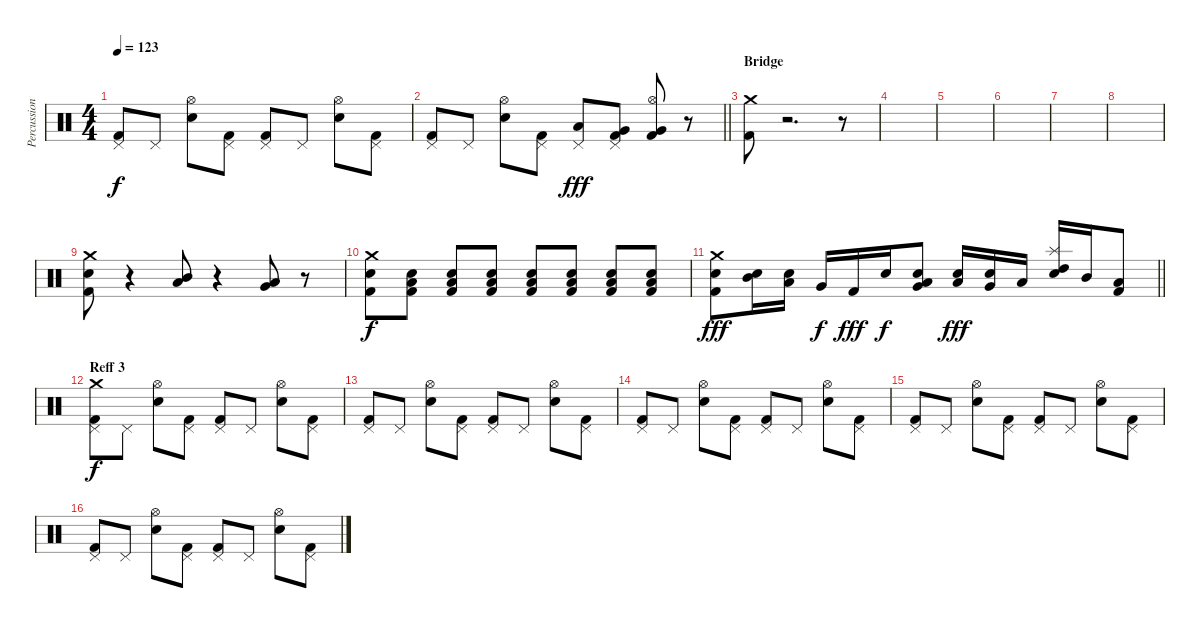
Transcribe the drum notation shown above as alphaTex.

\track ("Percussion 1" "Percussion") {instrument percussion}
\staff {score}
\articulation defaults
\ts (4 4)
\tempo 123
\clef neutral
\ks c
("Pedal Hi-Hat (hit)" "Kick (hit) 2").8{dy f} "Pedal Hi-Hat (hit)".8 ("Hi-Hat (open)" "Electric Snare (hit)").8 ("Pedal Hi-Hat (hit)" "Kick (hit) 2").8 ("Pedal Hi-Hat (hit)" "Kick (hit) 2").8 "Pedal Hi-Hat (hit)".8 ("Hi-Hat (open)" "Electric Snare (hit)").8 ("Pedal Hi-Hat (hit)" "Kick (hit) 2").8 |
\barLineRight lightlight
("Pedal Hi-Hat (hit)" "Kick (hit) 2").8 "Pedal Hi-Hat (hit)".8 ("Hi-Hat (open)" "Electric Snare (hit)").8 ("Pedal Hi-Hat (hit)" "Kick (hit) 2").8 ("Pedal Hi-Hat (hit)" "Low Tom (hit)").8{dy fff} ("Pedal Hi-Hat (hit)" "Very Low Tom (hit)" "Kick (hit) 2").8 ("Hi-Hat (open)" "Very Low Tom (hit)" "Kick (hit) 2").8 r.8 |
\section ("" "Bridge")
("Crash medium (hit)" "Kick (hit) 2").8 r.2{d volume 13} r.8 |
|
|
|
|
|
("Crash medium (hit)" "Electric Snare (hit)" "Kick (hit) 2").8 r.4 ("Mid Tom (hit)" "Low Tom (hit)").8 r.4 ("Low Tom (hit)" "Very Low Tom (hit)").8 r.8 |
("Crash medium (hit)" "Electric Snare (hit)" "Kick (hit) 2").8{dy f volume 16} ("Low Floor Tom (hit)" "Electric Snare (hit)" "Kick (hit) 2").8 ("Low Floor Tom (hit)" "Electric Snare (hit)" "Kick (hit) 2").8 ("Low Floor Tom (hit)" "Electric Snare (hit)" "Kick (hit) 2").8 ("Low Floor Tom (hit)" "Electric Snare (hit)" "Kick (hit) 2").8 ("Low Floor Tom (hit)" "Electric Snare (hit)" "Kick (hit) 2").8 ("Low Floor Tom (hit)" "Electric Snare (hit)" "Kick (hit) 2").8 ("Low Floor Tom (hit)" "Electric Snare (hit)" "Kick (hit) 2").8 |
\barLineRight lightlight
("Crash medium (hit)" "Electric Snare (hit)" "Kick (hit) 2").8{dy fff} ("Electric Snare (hit)" "Mid Tom (hit)").16 ("Electric Snare (hit)" "Low Tom (hit)").16 "Very Low Tom (hit)".16{dy f} "Kick (hit) 2".16{dy fff} "Electric Snare (hit)".16{dy f} ("Low Tom (hit)" "Electric Snare (hit)" "Very Low Tom (hit)").8 ("Electric Snare (hit)" "Low Tom (hit)").16{dy fff} ("Electric Snare (hit)" "Very Low Tom (hit)").16 "Low Tom (hit)".16 ("Splash (hit)" "Electric Snare (hit)" "High Tom (hit)").16 "Mid Tom (hit)".16 ("Low Tom (hit)" "Kick (hit) 2").8 |
\section ("" "Reff 3")
("Pedal Hi-Hat (hit)" "Crash medium (hit)" "Kick (hit) 2").8{dy f} "Pedal Hi-Hat (hit)".8 ("Hi-Hat (open)" "Electric Snare (hit)").8 ("Pedal Hi-Hat (hit)" "Kick (hit) 2").8 ("Pedal Hi-Hat (hit)" "Kick (hit) 2").8 "Pedal Hi-Hat (hit)".8 ("Hi-Hat (open)" "Electric Snare (hit)").8 ("Pedal Hi-Hat (hit)" "Kick (hit) 2").8 |
("Pedal Hi-Hat (hit)" "Kick (hit) 2").8 "Pedal Hi-Hat (hit)".8 ("Hi-Hat (open)" "Electric Snare (hit)").8 ("Pedal Hi-Hat (hit)" "Kick (hit) 2").8 ("Pedal Hi-Hat (hit)" "Kick (hit) 2").8 "Pedal Hi-Hat (hit)".8 ("Hi-Hat (open)" "Electric Snare (hit)").8 ("Pedal Hi-Hat (hit)" "Kick (hit) 2").8 |
("Pedal Hi-Hat (hit)" "Kick (hit) 2").8 "Pedal Hi-Hat (hit)".8 ("Hi-Hat (open)" "Electric Snare (hit)").8 ("Pedal Hi-Hat (hit)" "Kick (hit) 2").8 ("Pedal Hi-Hat (hit)" "Kick (hit) 2").8 "Pedal Hi-Hat (hit)".8 ("Hi-Hat (open)" "Electric Snare (hit)").8 ("Pedal Hi-Hat (hit)" "Kick (hit) 2").8 |
("Pedal Hi-Hat (hit)" "Kick (hit) 2").8 "Pedal Hi-Hat (hit)".8 ("Hi-Hat (open)" "Electric Snare (hit)").8 ("Pedal Hi-Hat (hit)" "Kick (hit) 2").8 ("Pedal Hi-Hat (hit)" "Kick (hit) 2").8 "Pedal Hi-Hat (hit)".8 ("Hi-Hat (open)" "Electric Snare (hit)").8 ("Pedal Hi-Hat (hit)" "Kick (hit) 2").8 |
("Pedal Hi-Hat (hit)" "Kick (hit) 2").8 "Pedal Hi-Hat (hit)".8 ("Hi-Hat (open)" "Electric Snare (hit)").8 ("Pedal Hi-Hat (hit)" "Kick (hit) 2").8 ("Pedal Hi-Hat (hit)" "Kick (hit) 2").8 "Pedal Hi-Hat (hit)".8 ("Hi-Hat (open)" "Electric Snare (hit)").8 ("Pedal Hi-Hat (hit)" "Kick (hit) 2").8
